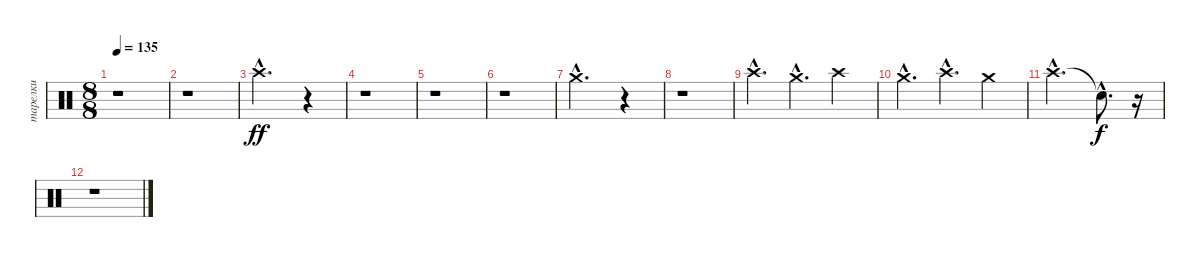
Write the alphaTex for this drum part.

\track ("тарелки" "тарелки") {instrument percussion}
\staff {score}
\articulation defaults
\ts (8 8)
\tempo 135
\clef neutral
\ks c
r.1{dy f} |
r.1 |
"Crash high (hit)"{hac}.2{d dy ff} r.4 |
r.1 |
r.1 |
r.1 |
"Crash medium (hit)"{hac}.2{d} r.4 |
r.1 |
"Crash high (hit)"{hac}.4{d} "Crash medium (hit)"{hac}.4{d} "Crash high (hit)".4 |
"Crash medium (hit)"{hac}.4{d} "Crash high (hit)"{hac}.4{d} "Crash medium (hit)".4 |
"Crash high (hit)"{hac}.2{d} "Snare (hit)"{hac t}.8{d dy f} r.16 |
r.1
